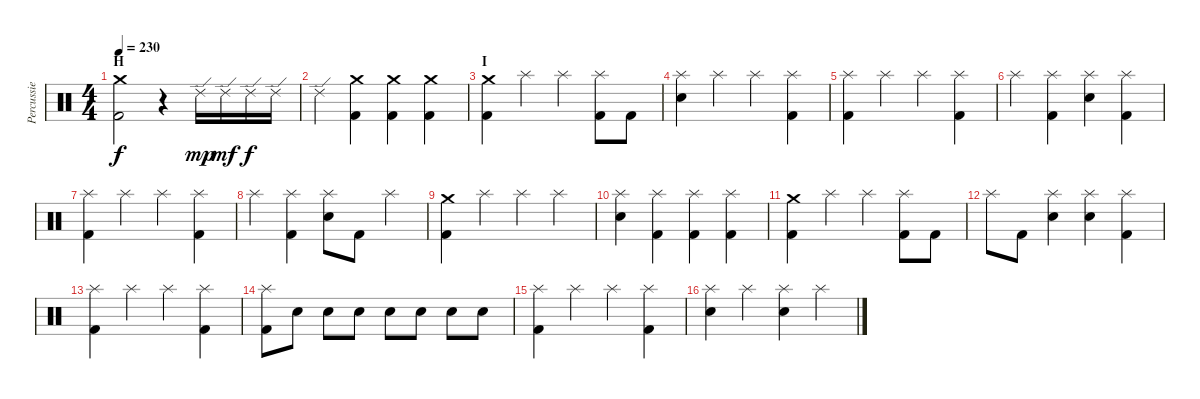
\track ("Percussie" "Percussie") {instrument percussion}
\staff {score}
\articulation defaults
\ts (4 4)
\section ("" "H")
\tempo 230
\clef neutral
\ks c
("Crash medium (hit)" "Kick (hit) 2").2{dy f} r.4 "Ride (edge) 2".16{dy mp} "Ride (edge) 2".16{dy mf} "Ride (edge) 2".16{dy f} "Ride (edge) 2".16 |
"Ride (edge) 2".4 ("Crash medium (hit)" "Kick (hit) 2").4 ("Crash medium (hit)" "Kick (hit) 2").4 ("Crash medium (hit)" "Kick (hit) 2").4 |
\section ("" "I")
("Crash medium (hit)" "Kick (hit) 2").4 "Splash (hit)".4 "Splash (hit)".4 ("Splash (hit)" "Kick (hit) 2").8 "Kick (hit) 2".8 |
("Splash (hit)" "Electric Snare (hit)").4 "Splash (hit)".4 "Splash (hit)".4 ("Splash (hit)" "Kick (hit) 2").4 |
("Splash (hit)" "Kick (hit) 2").4 "Splash (hit)".4 "Splash (hit)".4 ("Splash (hit)" "Kick (hit) 2").4 |
"Splash (hit)".4 ("Splash (hit)" "Kick (hit) 2").4 ("Splash (hit)" "Electric Snare (hit)").4 ("Splash (hit)" "Kick (hit) 2").4 |
("Splash (hit)" "Kick (hit) 2").4 "Splash (hit)".4 "Splash (hit)".4 ("Splash (hit)" "Kick (hit) 2").4 |
"Splash (hit)".4 ("Splash (hit)" "Kick (hit) 2").4 ("Splash (hit)" "Electric Snare (hit)").8 "Kick (hit) 2".8 "Splash (hit)".4 |
("Crash medium (hit)" "Kick (hit) 2").4 "Splash (hit)".4 "Splash (hit)".4 "Splash (hit)".4 |
("Splash (hit)" "Electric Snare (hit)").4 ("Splash (hit)" "Kick (hit) 2").4 ("Splash (hit)" "Kick (hit) 2").4 ("Splash (hit)" "Kick (hit) 2").4 |
("Crash medium (hit)" "Kick (hit) 2").4 "Splash (hit)".4 "Splash (hit)".4 ("Splash (hit)" "Kick (hit) 2").8 "Kick (hit) 2".8 |
"Splash (hit)".8 "Kick (hit) 2".8 ("Splash (hit)" "Electric Snare (hit)").4 ("Splash (hit)" "Electric Snare (hit)").4 ("Splash (hit)" "Kick (hit) 2").4 |
("Splash (hit)" "Kick (hit) 2").4 "Splash (hit)".4 "Splash (hit)".4 ("Splash (hit)" "Kick (hit) 2").4 |
("Splash (hit)" "Kick (hit) 2").8 "Electric Snare (hit)".8 "Electric Snare (hit)".8 "Electric Snare (hit)".8 "Electric Snare (hit)".8 "Electric Snare (hit)".8 "Electric Snare (hit)".8 "Electric Snare (hit)".8 |
("Splash (hit)" "Kick (hit) 2").4 "Splash (hit)".4 "Splash (hit)".4 ("Splash (hit)" "Kick (hit) 2").4 |
("Splash (hit)" "Electric Snare (hit)").4 "Splash (hit)".4 ("Splash (hit)" "Electric Snare (hit)").4 "Splash (hit)".4
